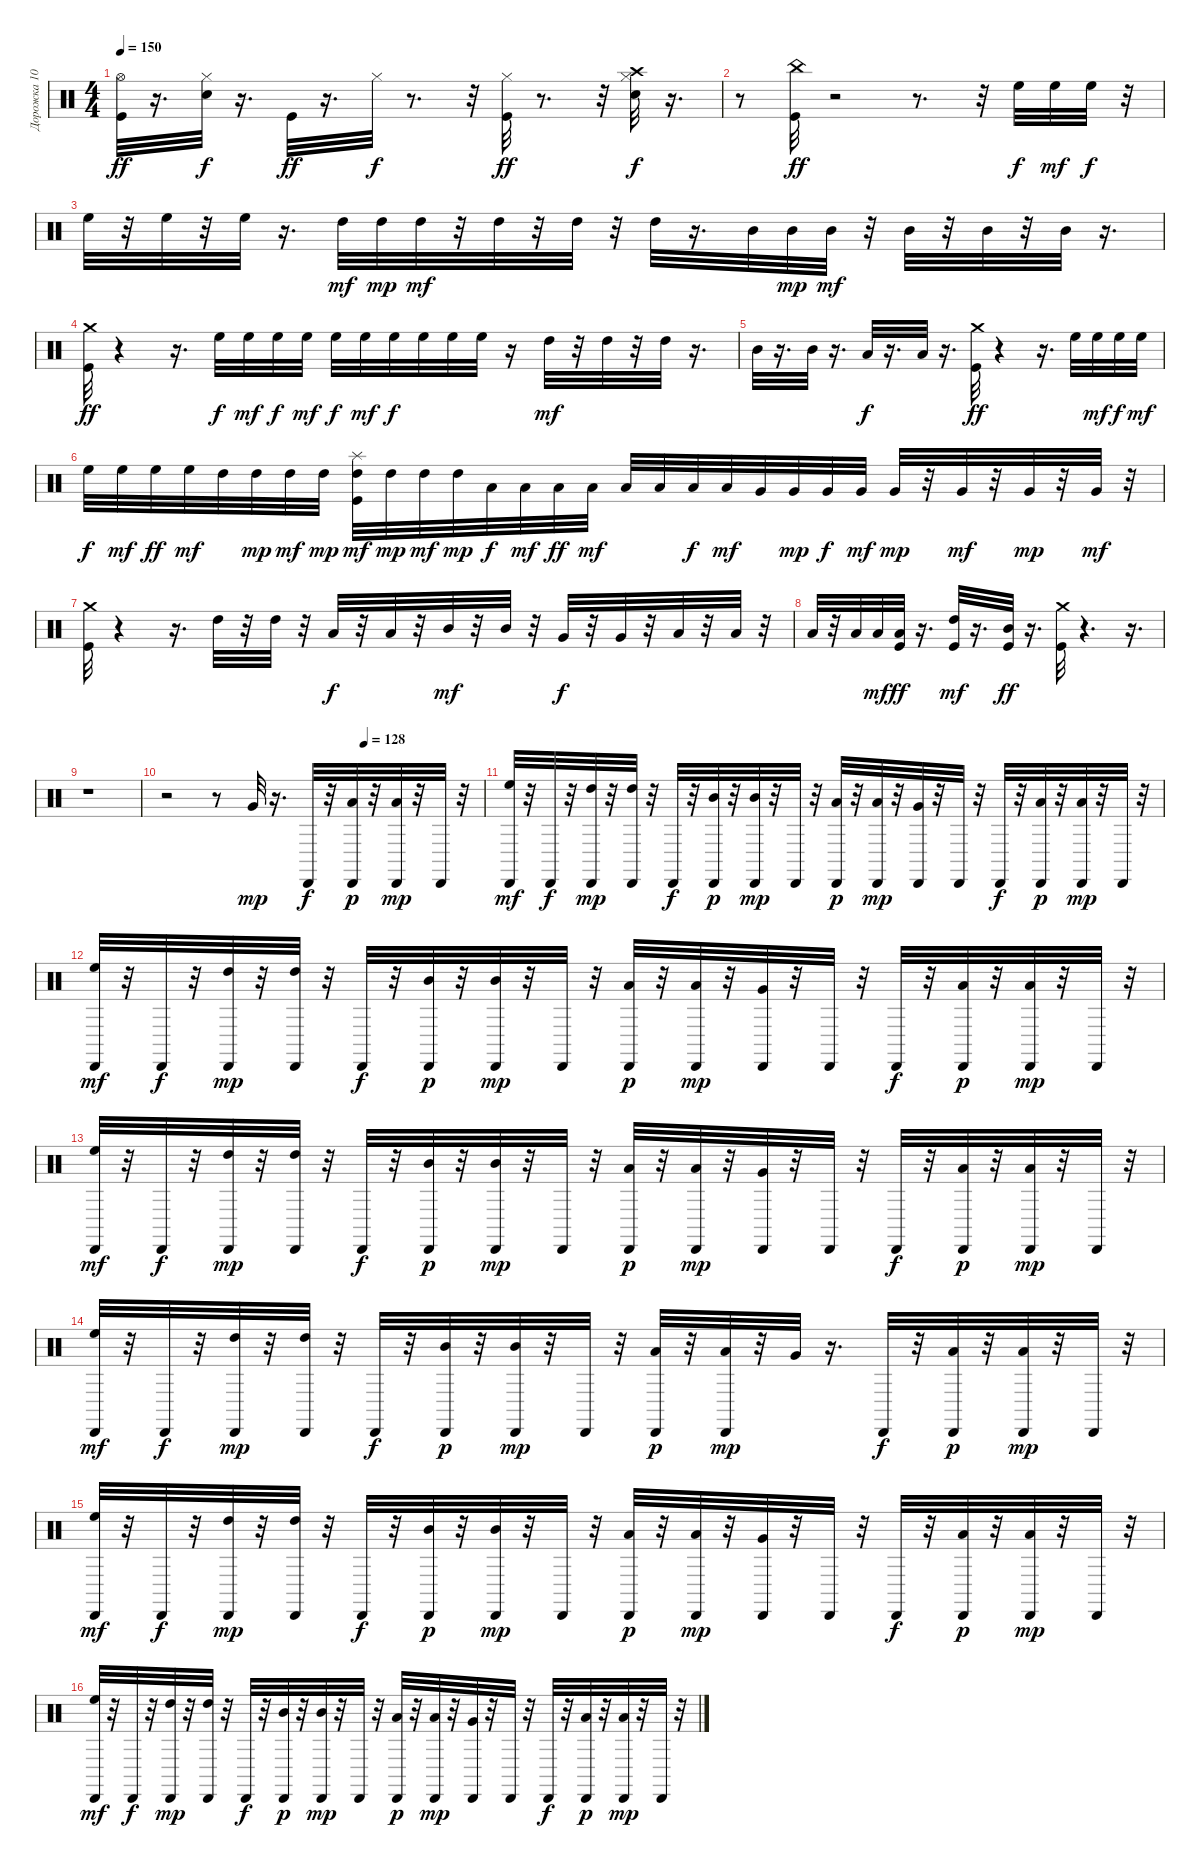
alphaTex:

\track ("Дорожка 10" "Дорожка 10") {instrument percussion}
\staff {score}
\articulation defaults
\ts (4 4)
\tempo 150
\clef neutral
\ks c
("Hi-Hat (open)" "Kick (hit)").32{dy ff} r.16{d} ("Hi-Hat (closed)" "Electric Snare (hit)").32{dy f} r.16{d} "Kick (hit)".32{dy ff} r.16{d} "Hi-Hat (closed)".32{dy f} r.8{d} r.32 ("Hi-Hat (closed)" "Kick (hit)").32{dy ff} r.8{d} r.32 ("Hi-Hat (closed)" "Electric Snare (hit)" "Crash high (hit)").32{dy f} r.16{d} |
r.8 ("Kick (hit)" "China (hit)").32{dy ff} r.2 r.8{d} r.32 "High Floor Tom (hit)".32{dy f} "High Floor Tom (hit)".32{dy mf} "High Floor Tom (hit)".32{dy f} r.32 |
"High Floor Tom (hit)".32 r.32 "High Floor Tom (hit)".32 r.32 "High Floor Tom (hit)".32 r.16{d} "High Tom (hit)".32{dy mf} "High Tom (hit)".32{dy mp} "High Tom (hit)".32{dy mf} r.32 "High Tom (hit)".32 r.32 "High Tom (hit)".32 r.32 "High Tom (hit)".32 r.16{d} "Mid Tom (hit)".32 "Mid Tom (hit)".32{dy mp} "Mid Tom (hit)".32{dy mf} r.32 "Mid Tom (hit)".32 r.32 "Mid Tom (hit)".32 r.32 "Mid Tom (hit)".32 r.16{d} |
("Crash medium (hit)" "Kick (hit)").32{dy ff} r.4 r.16{d} "High Floor Tom (hit)".32{dy f} "High Floor Tom (hit)".32{dy mf} "High Floor Tom (hit)".32{dy f} "High Floor Tom (hit)".32{dy mf} "High Floor Tom (hit)".32{dy f} "High Floor Tom (hit)".32{dy mf} "High Floor Tom (hit)".32{dy f} "High Floor Tom (hit)".32 "High Floor Tom (hit)".32 "High Floor Tom (hit)".32 r.16 "High Tom (hit)".32{dy mf} r.32 "High Tom (hit)".32 r.32 "High Tom (hit)".32 r.16{d} |
"Mid Tom (hit)".32 r.16{d} "Mid Tom (hit)".32 r.16{d} "Low Tom (hit)".32{dy f} r.16{d} "Low Tom (hit)".32 r.16{d} ("Crash medium (hit)" "Kick (hit)").32{dy ff} r.4 r.16{d} "High Floor Tom (hit)".32 "High Floor Tom (hit)".32{dy mf} "High Floor Tom (hit)".32{dy f} "High Floor Tom (hit)".32{dy mf} |
"High Floor Tom (hit)".32{dy f} "High Floor Tom (hit)".32{dy mf} "High Floor Tom (hit)".32{dy ff} "High Floor Tom (hit)".32{dy mf} "High Tom (hit)".32 "High Tom (hit)".32{dy mp} "High Tom (hit)".32{dy mf} "High Tom (hit)".32{dy mp} ("Kick (hit)" "Splash (hit)" "High Tom (hit)").32{dy mf} "High Tom (hit)".32{dy mp} "High Tom (hit)".32{dy mf} "High Tom (hit)".32{dy mp} "Low Tom (hit)".32{dy f} "Low Tom (hit)".32{dy mf} "Low Tom (hit)".32{dy ff} "Low Tom (hit)".32{dy mf} "Low Tom (hit)".32 "Low Tom (hit)".32 "Low Tom (hit)".32{dy f} "Low Tom (hit)".32{dy mf} "Very Low Tom (hit)".32 "Very Low Tom (hit)".32{dy mp} "Very Low Tom (hit)".32{dy f} "Very Low Tom (hit)".32{dy mf} "Very Low Tom (hit)".32{dy mp} r.32 "Very Low Tom (hit)".32{dy mf} r.32 "Very Low Tom (hit)".32{dy mp} r.32 "Very Low Tom (hit)".32{dy mf} r.32 |
("Crash medium (hit)" "Kick (hit)").32 r.4 r.16{d} "High Tom (hit)".32 r.32 "High Tom (hit)".32 r.32 "Low Tom (hit)".32{dy f} r.32 "Low Tom (hit)".32 r.32 "Mid Tom (hit)".32{dy mf} r.32 "Mid Tom (hit)".32 r.32 "Very Low Tom (hit)".32{dy f} r.32 "Very Low Tom (hit)".32 r.32 "Low Tom (hit)".32 r.32 "Low Tom (hit)".32 r.32 |
"Low Floor Tom (hit)".32 r.32 "Low Floor Tom (hit)".32 "Low Floor Tom (hit)".32{dy mf} ("Low Floor Tom (hit)" "Kick (hit)").32{dy ff} r.16{d} ("Kick (hit)" "High Tom (hit)").32{dy mf} r.16{d} ("Mid Tom (hit)" "Kick (hit)").32{dy ff} r.16{d} ("Kick (hit)" "Crash medium (hit)").32 r.4{d} r.16{d} |
r.1 |
\tempo (128 0.625)
r.2 r.8 "Very Low Tom (hit)".32{dy mp} r.16{d} "Cabasa (hit)".32{dy f} r.32 ("Low Floor Tom (hit)" "Cabasa (hit)").32{dy p} r.32 ("Low Floor Tom (hit)" "Cabasa (hit)").32{dy mp} r.32 "Cabasa (hit)".32 r.32 |
("High Floor Tom (hit)" "Cabasa (hit)").32{dy mf} r.32 "Cabasa (hit)".32{dy f} r.32 ("High Tom (hit)" "Cabasa (hit)").32{dy mp} r.32 ("Cabasa (hit)" "High Tom (hit)").32 r.32 "Cabasa (hit)".32{dy f} r.32 ("Mid Tom (hit)" "Cabasa (hit)").32{dy p} r.32 ("Cabasa (hit)" "Mid Tom (hit)").32{dy mp} r.32 "Cabasa (hit)".32 r.32 ("Low Tom (hit)" "Cabasa (hit)").32{dy p} r.32 ("Cabasa (hit)" "Low Tom (hit)").32{dy mp} r.32 ("Cabasa (hit)" "Very Low Tom (hit)").32 r.32 "Cabasa (hit)".32 r.32 "Cabasa (hit)".32{dy f} r.32 ("Low Floor Tom (hit)" "Cabasa (hit)").32{dy p} r.32 ("Cabasa (hit)" "Low Floor Tom (hit)").32{dy mp} r.32 "Cabasa (hit)".32 r.32 |
("Cabasa (hit)" "High Floor Tom (hit)").32{dy mf} r.32 "Cabasa (hit)".32{dy f} r.32 ("High Tom (hit)" "Cabasa (hit)").32{dy mp} r.32 ("High Tom (hit)" "Cabasa (hit)").32 r.32 "Cabasa (hit)".32{dy f} r.32 ("Cabasa (hit)" "Mid Tom (hit)").32{dy p} r.32 ("Mid Tom (hit)" "Cabasa (hit)").32{dy mp} r.32 "Cabasa (hit)".32 r.32 ("Low Tom (hit)" "Cabasa (hit)").32{dy p} r.32 ("Low Tom (hit)" "Cabasa (hit)").32{dy mp} r.32 ("Very Low Tom (hit)" "Cabasa (hit)").32 r.32 "Cabasa (hit)".32 r.32 "Cabasa (hit)".32{dy f} r.32 ("Low Floor Tom (hit)" "Cabasa (hit)").32{dy p} r.32 ("Cabasa (hit)" "Low Floor Tom (hit)").32{dy mp} r.32 "Cabasa (hit)".32 r.32 |
("High Floor Tom (hit)" "Cabasa (hit)").32{dy mf} r.32 "Cabasa (hit)".32{dy f} r.32 ("High Tom (hit)" "Cabasa (hit)").32{dy mp} r.32 ("Cabasa (hit)" "High Tom (hit)").32 r.32 "Cabasa (hit)".32{dy f} r.32 ("Mid Tom (hit)" "Cabasa (hit)").32{dy p} r.32 ("Cabasa (hit)" "Mid Tom (hit)").32{dy mp} r.32 "Cabasa (hit)".32 r.32 ("Cabasa (hit)" "Low Tom (hit)").32{dy p} r.32 ("Cabasa (hit)" "Low Tom (hit)").32{dy mp} r.32 ("Very Low Tom (hit)" "Cabasa (hit)").32 r.32 "Cabasa (hit)".32 r.32 "Cabasa (hit)".32{dy f} r.32 ("Low Floor Tom (hit)" "Cabasa (hit)").32{dy p} r.32 ("Low Floor Tom (hit)" "Cabasa (hit)").32{dy mp} r.32 "Cabasa (hit)".32 r.32 |
("Cabasa (hit)" "High Floor Tom (hit)").32{dy mf} r.32 "Cabasa (hit)".32{dy f} r.32 ("Cabasa (hit)" "High Tom (hit)").32{dy mp} r.32 ("High Tom (hit)" "Cabasa (hit)").32 r.32 "Cabasa (hit)".32{dy f} r.32 ("Cabasa (hit)" "Mid Tom (hit)").32{dy p} r.32 ("Cabasa (hit)" "Mid Tom (hit)").32{dy mp} r.32 "Cabasa (hit)".32 r.32 ("Cabasa (hit)" "Low Tom (hit)").32{dy p} r.32 ("Cabasa (hit)" "Low Tom (hit)").32{dy mp} r.32 "Very Low Tom (hit)".32 r.16{d} "Cabasa (hit)".32{dy f} r.32 ("Low Floor Tom (hit)" "Cabasa (hit)").32{dy p} r.32 ("Low Floor Tom (hit)" "Cabasa (hit)").32{dy mp} r.32 "Cabasa (hit)".32 r.32 |
("High Floor Tom (hit)" "Cabasa (hit)").32{dy mf} r.32 "Cabasa (hit)".32{dy f} r.32 ("High Tom (hit)" "Cabasa (hit)").32{dy mp} r.32 ("Cabasa (hit)" "High Tom (hit)").32 r.32 "Cabasa (hit)".32{dy f} r.32 ("Mid Tom (hit)" "Cabasa (hit)").32{dy p} r.32 ("Cabasa (hit)" "Mid Tom (hit)").32{dy mp} r.32 "Cabasa (hit)".32 r.32 ("Low Tom (hit)" "Cabasa (hit)").32{dy p} r.32 ("Cabasa (hit)" "Low Tom (hit)").32{dy mp} r.32 ("Cabasa (hit)" "Very Low Tom (hit)").32 r.32 "Cabasa (hit)".32 r.32 "Cabasa (hit)".32{dy f} r.32 ("Low Floor Tom (hit)" "Cabasa (hit)").32{dy p} r.32 ("Cabasa (hit)" "Low Floor Tom (hit)").32{dy mp} r.32 "Cabasa (hit)".32 r.32 |
("Cabasa (hit)" "High Floor Tom (hit)").32{dy mf} r.32 "Cabasa (hit)".32{dy f} r.32 ("High Tom (hit)" "Cabasa (hit)").32{dy mp} r.32 ("High Tom (hit)" "Cabasa (hit)").32 r.32 "Cabasa (hit)".32{dy f} r.32 ("Cabasa (hit)" "Mid Tom (hit)").32{dy p} r.32 ("Mid Tom (hit)" "Cabasa (hit)").32{dy mp} r.32 "Cabasa (hit)".32 r.32 ("Low Tom (hit)" "Cabasa (hit)").32{dy p} r.32 ("Low Tom (hit)" "Cabasa (hit)").32{dy mp} r.32 ("Very Low Tom (hit)" "Cabasa (hit)").32 r.32 "Cabasa (hit)".32 r.32 "Cabasa (hit)".32{dy f} r.32 ("Low Floor Tom (hit)" "Cabasa (hit)").32{dy p} r.32 ("Cabasa (hit)" "Low Floor Tom (hit)").32{dy mp} r.32 "Cabasa (hit)".32 r.32
